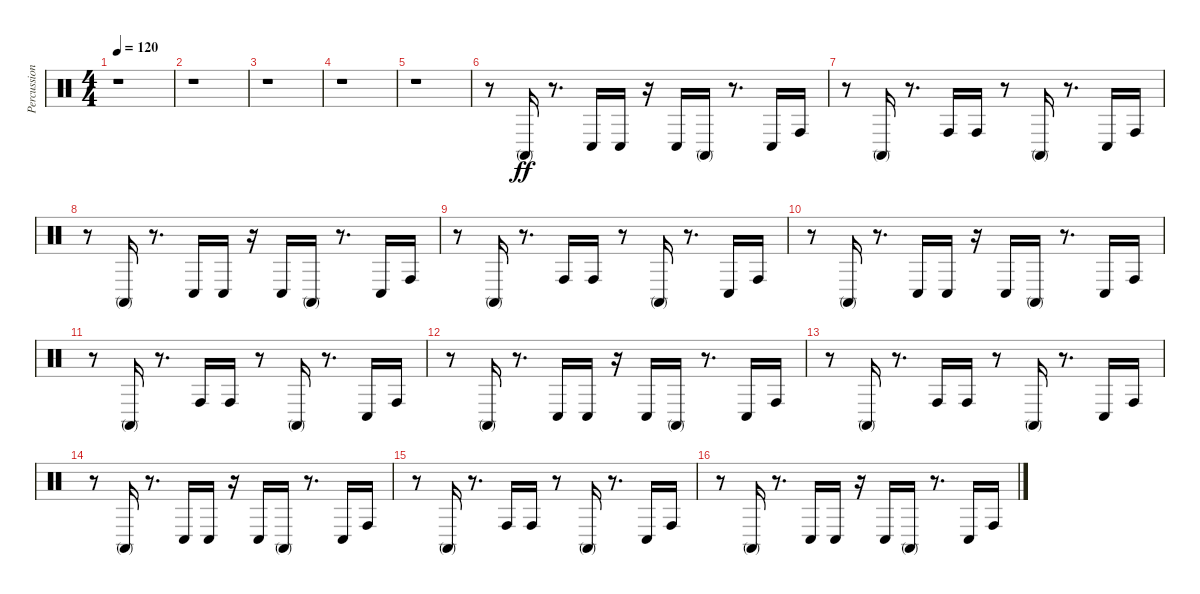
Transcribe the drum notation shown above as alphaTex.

\track ("Percussion" "Percussion") {instrument percussion}
\staff {score}
\articulation defaults
\ts (4 4)
\tempo 120
\clef neutral
\ks c
r.1{dy ff} |
r.1 |
r.1 |
r.1 |
r.1 |
r.8 "Conga high (mute)".16 r.8{d} "Conga low (hit)".16 "Conga low (hit)".16 r.16 "Conga low (hit)".16 "Conga high (mute)".16 r.8{d} "Conga low (hit)".16 "Conga high (hit)".16 |
r.8 "Conga high (mute)".16 r.8{d} "Conga high (hit)".16 "Conga high (hit)".16 r.8 "Conga high (mute)".16 r.8{d} "Conga low (hit)".16 "Conga high (hit)".16 |
r.8 "Conga high (mute)".16 r.8{d} "Conga low (hit)".16 "Conga low (hit)".16 r.16 "Conga low (hit)".16 "Conga high (mute)".16 r.8{d} "Conga low (hit)".16 "Conga high (hit)".16 |
r.8 "Conga high (mute)".16 r.8{d} "Conga high (hit)".16 "Conga high (hit)".16 r.8 "Conga high (mute)".16 r.8{d} "Conga low (hit)".16 "Conga high (hit)".16 |
r.8 "Conga high (mute)".16 r.8{d} "Conga low (hit)".16 "Conga low (hit)".16 r.16 "Conga low (hit)".16 "Conga high (mute)".16 r.8{d} "Conga low (hit)".16 "Conga high (hit)".16 |
r.8 "Conga high (mute)".16 r.8{d} "Conga high (hit)".16 "Conga high (hit)".16 r.8 "Conga high (mute)".16 r.8{d} "Conga low (hit)".16 "Conga high (hit)".16 |
r.8 "Conga high (mute)".16 r.8{d} "Conga low (hit)".16 "Conga low (hit)".16 r.16 "Conga low (hit)".16 "Conga high (mute)".16 r.8{d} "Conga low (hit)".16 "Conga high (hit)".16 |
r.8 "Conga high (mute)".16 r.8{d} "Conga high (hit)".16 "Conga high (hit)".16 r.8 "Conga high (mute)".16 r.8{d} "Conga low (hit)".16 "Conga high (hit)".16 |
r.8 "Conga high (mute)".16 r.8{d} "Conga low (hit)".16 "Conga low (hit)".16 r.16 "Conga low (hit)".16 "Conga high (mute)".16 r.8{d} "Conga low (hit)".16 "Conga high (hit)".16 |
r.8 "Conga high (mute)".16 r.8{d} "Conga high (hit)".16 "Conga high (hit)".16 r.8 "Conga high (mute)".16 r.8{d} "Conga low (hit)".16 "Conga high (hit)".16 |
r.8 "Conga high (mute)".16 r.8{d} "Conga low (hit)".16 "Conga low (hit)".16 r.16 "Conga low (hit)".16 "Conga high (mute)".16 r.8{d} "Conga low (hit)".16 "Conga high (hit)".16
